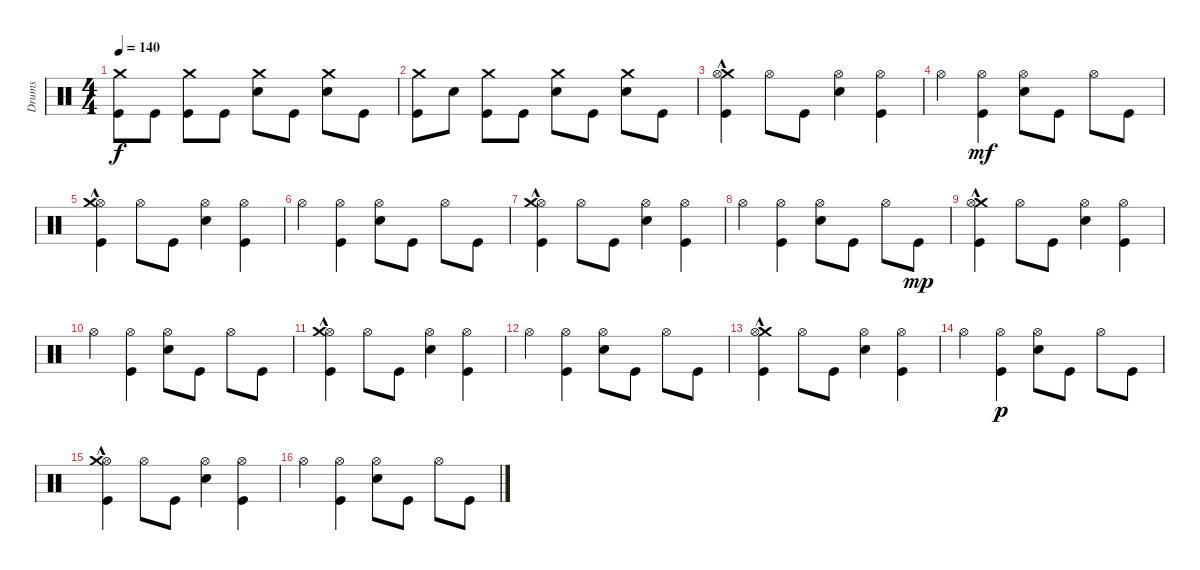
\track ("Drums" "Drums") {instrument percussion}
\staff {score}
\articulation defaults
\ts (4 4)
\tempo 140
\clef neutral
\ks c
("Kick (hit)" "Crash medium (hit)").8{dy f} "Kick (hit)".8 ("Kick (hit)" "Crash medium (hit)").8 "Kick (hit)".8 ("Electric Snare (hit)" "Crash medium (hit)").8 "Kick (hit)".8 ("Electric Snare (hit)" "Crash medium (hit)").8 "Kick (hit)".8 |
("Kick (hit)" "Crash medium (hit)").8 "Electric Snare (hit)".8 ("Kick (hit)" "Crash medium (hit)").8 "Kick (hit)".8 ("Electric Snare (hit)" "Crash medium (hit)").8 "Kick (hit)".8 ("Electric Snare (hit)" "Crash medium (hit)").8 "Kick (hit)".8 |
("Crash medium (hit)"{hac} "Hi-Hat (open)" "Kick (hit)").4 "Hi-Hat (open)".8 "Kick (hit)".8 ("Hi-Hat (open)" "Electric Snare (hit)").4 ("Hi-Hat (open)" "Kick (hit)").4 |
"Hi-Hat (open)".4 ("Hi-Hat (open)" "Kick (hit)").4{dy mf} ("Hi-Hat (open)" "Electric Snare (hit)").8 "Kick (hit)".8 "Hi-Hat (open)".8 "Kick (hit)".8 |
("Kick (hit)" "Hi-Hat (open)" "Crash medium (hit)"{hac}).4 "Hi-Hat (open)".8 "Kick (hit)".8 ("Electric Snare (hit)" "Hi-Hat (open)").4 ("Kick (hit)" "Hi-Hat (open)").4 |
"Hi-Hat (open)".4 ("Kick (hit)" "Hi-Hat (open)").4 ("Electric Snare (hit)" "Hi-Hat (open)").8 "Kick (hit)".8 "Hi-Hat (open)".8 "Kick (hit)".8 |
("Kick (hit)" "Hi-Hat (open)" "Crash medium (hit)"{hac}).4 "Hi-Hat (open)".8 "Kick (hit)".8 ("Electric Snare (hit)" "Hi-Hat (open)").4 ("Kick (hit)" "Hi-Hat (open)").4 |
"Hi-Hat (open)".4 ("Kick (hit)" "Hi-Hat (open)").4 ("Electric Snare (hit)" "Hi-Hat (open)").8 "Kick (hit)".8 "Hi-Hat (open)".8 "Kick (hit)".8{dy mp} |
("Crash medium (hit)"{hac} "Hi-Hat (open)" "Kick (hit)").4 "Hi-Hat (open)".8 "Kick (hit)".8 ("Hi-Hat (open)" "Electric Snare (hit)").4 ("Hi-Hat (open)" "Kick (hit)").4 |
"Hi-Hat (open)".4 ("Hi-Hat (open)" "Kick (hit)").4 ("Hi-Hat (open)" "Electric Snare (hit)").8 "Kick (hit)".8 "Hi-Hat (open)".8 "Kick (hit)".8 |
("Kick (hit)" "Hi-Hat (open)" "Crash medium (hit)"{hac}).4 "Hi-Hat (open)".8 "Kick (hit)".8 ("Electric Snare (hit)" "Hi-Hat (open)").4 ("Kick (hit)" "Hi-Hat (open)").4 |
"Hi-Hat (open)".4 ("Kick (hit)" "Hi-Hat (open)").4 ("Electric Snare (hit)" "Hi-Hat (open)").8 "Kick (hit)".8 "Hi-Hat (open)".8 "Kick (hit)".8 |
("Crash medium (hit)"{hac} "Hi-Hat (open)" "Kick (hit)").4 "Hi-Hat (open)".8 "Kick (hit)".8 ("Hi-Hat (open)" "Electric Snare (hit)").4 ("Hi-Hat (open)" "Kick (hit)").4 |
"Hi-Hat (open)".4 ("Hi-Hat (open)" "Kick (hit)").4{dy p} ("Hi-Hat (open)" "Electric Snare (hit)").8 "Kick (hit)".8 "Hi-Hat (open)".8 "Kick (hit)".8 |
("Kick (hit)" "Hi-Hat (open)" "Crash medium (hit)"{hac}).4 "Hi-Hat (open)".8 "Kick (hit)".8 ("Electric Snare (hit)" "Hi-Hat (open)").4 ("Kick (hit)" "Hi-Hat (open)").4 |
"Hi-Hat (open)".4 ("Kick (hit)" "Hi-Hat (open)").4 ("Electric Snare (hit)" "Hi-Hat (open)").8 "Kick (hit)".8 "Hi-Hat (open)".8 "Kick (hit)".8
